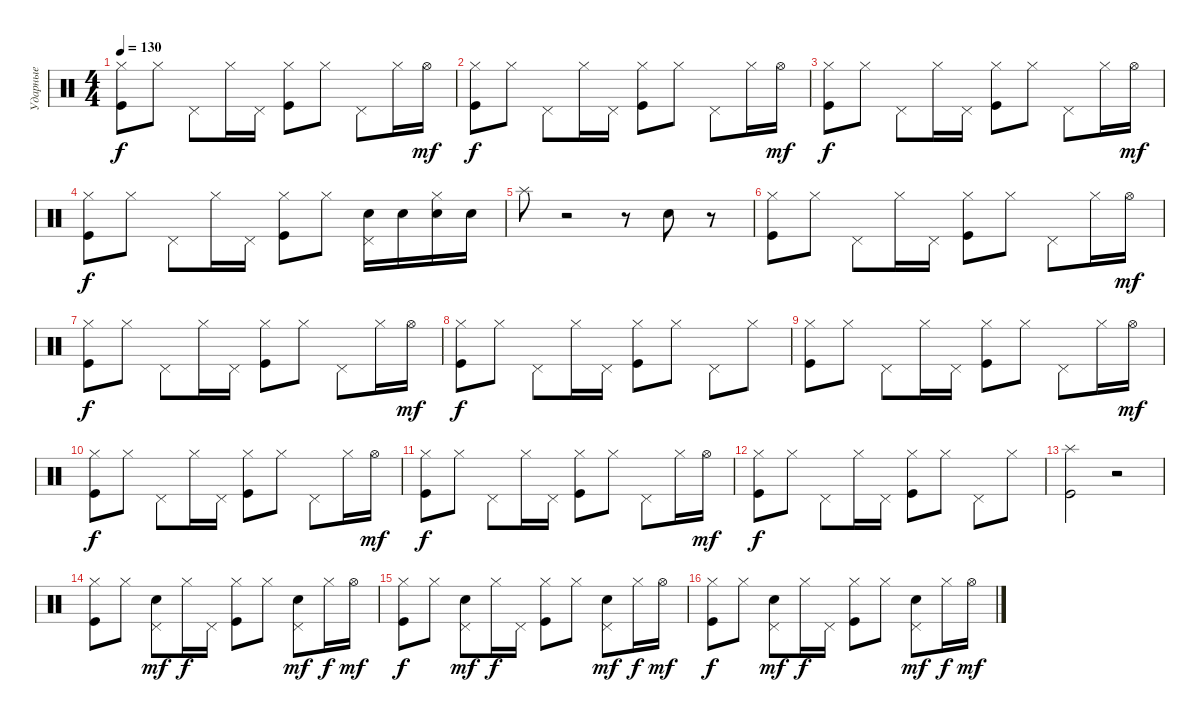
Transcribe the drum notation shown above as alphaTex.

\track ("Ударные" "Ударные") {instrument percussion}
\staff {score}
\articulation defaults
\ts (4 4)
\tempo 130
\clef neutral
\ks c
("Hi-Hat (closed)" "Kick (hit)").8{dy f} "Hi-Hat (closed)".8 "Pedal Hi-Hat (hit)".8 "Hi-Hat (closed)".16 "Pedal Hi-Hat (hit)".16 ("Hi-Hat (closed)" "Kick (hit)").8 "Hi-Hat (closed)".8 "Pedal Hi-Hat (hit)".8 "Hi-Hat (closed)".16 "Hi-Hat (open)".16{dy mf} |
("Hi-Hat (closed)" "Kick (hit)").8{dy f} "Hi-Hat (closed)".8 "Pedal Hi-Hat (hit)".8 "Hi-Hat (closed)".16 "Pedal Hi-Hat (hit)".16 ("Hi-Hat (closed)" "Kick (hit)").8 "Hi-Hat (closed)".8 "Pedal Hi-Hat (hit)".8 "Hi-Hat (closed)".16 "Hi-Hat (open)".16{dy mf} |
("Hi-Hat (closed)" "Kick (hit)").8{dy f} "Hi-Hat (closed)".8 "Pedal Hi-Hat (hit)".8 "Hi-Hat (closed)".16 "Pedal Hi-Hat (hit)".16 ("Hi-Hat (closed)" "Kick (hit)").8 "Hi-Hat (closed)".8 "Pedal Hi-Hat (hit)".8 "Hi-Hat (closed)".16 "Hi-Hat (open)".16{dy mf} |
("Hi-Hat (closed)" "Kick (hit)").8{dy f} "Hi-Hat (closed)".8 "Pedal Hi-Hat (hit)".8 "Hi-Hat (closed)".16 "Pedal Hi-Hat (hit)".16 ("Hi-Hat (closed)" "Kick (hit)").8 "Hi-Hat (closed)".8 ("Pedal Hi-Hat (hit)" "Electric Snare (hit)").16 "Electric Snare (hit)".16 ("Hi-Hat (closed)" "Electric Snare (hit)").16 "Electric Snare (hit)".16 |
"Splash (hit)".8 r.2 r.8 "Metronome (bell)".8 r.8 |
("Hi-Hat (closed)" "Kick (hit)").8 "Hi-Hat (closed)".8 "Pedal Hi-Hat (hit)".8 "Hi-Hat (closed)".16 "Pedal Hi-Hat (hit)".16 ("Hi-Hat (closed)" "Kick (hit)").8 "Hi-Hat (closed)".8 "Pedal Hi-Hat (hit)".8 "Hi-Hat (closed)".16 "Hi-Hat (open)".16{dy mf} |
("Hi-Hat (closed)" "Kick (hit)").8{dy f} "Hi-Hat (closed)".8 "Pedal Hi-Hat (hit)".8 "Hi-Hat (closed)".16 "Pedal Hi-Hat (hit)".16 ("Hi-Hat (closed)" "Kick (hit)").8 "Hi-Hat (closed)".8 "Pedal Hi-Hat (hit)".8 "Hi-Hat (closed)".16 "Hi-Hat (open)".16{dy mf} |
("Hi-Hat (closed)" "Kick (hit)").8{dy f} "Hi-Hat (closed)".8 "Pedal Hi-Hat (hit)".8 "Hi-Hat (closed)".16 "Pedal Hi-Hat (hit)".16 ("Hi-Hat (closed)" "Kick (hit)").8 "Hi-Hat (closed)".8 "Pedal Hi-Hat (hit)".8 "Hi-Hat (closed)".8 |
("Hi-Hat (closed)" "Kick (hit)").8 "Hi-Hat (closed)".8 "Pedal Hi-Hat (hit)".8 "Hi-Hat (closed)".16 "Pedal Hi-Hat (hit)".16 ("Hi-Hat (closed)" "Kick (hit)").8 "Hi-Hat (closed)".8 "Pedal Hi-Hat (hit)".8 "Hi-Hat (closed)".16 "Hi-Hat (open)".16{dy mf} |
("Hi-Hat (closed)" "Kick (hit)").8{dy f} "Hi-Hat (closed)".8 "Pedal Hi-Hat (hit)".8 "Hi-Hat (closed)".16 "Pedal Hi-Hat (hit)".16 ("Hi-Hat (closed)" "Kick (hit)").8 "Hi-Hat (closed)".8 "Pedal Hi-Hat (hit)".8 "Hi-Hat (closed)".16 "Hi-Hat (open)".16{dy mf} |
("Hi-Hat (closed)" "Kick (hit)").8{dy f} "Hi-Hat (closed)".8 "Pedal Hi-Hat (hit)".8 "Hi-Hat (closed)".16 "Pedal Hi-Hat (hit)".16 ("Hi-Hat (closed)" "Kick (hit)").8 "Hi-Hat (closed)".8 "Pedal Hi-Hat (hit)".8 "Hi-Hat (closed)".16 "Hi-Hat (open)".16{dy mf} |
("Hi-Hat (closed)" "Kick (hit)").8{dy f} "Hi-Hat (closed)".8 "Pedal Hi-Hat (hit)".8 "Hi-Hat (closed)".16 "Pedal Hi-Hat (hit)".16 ("Hi-Hat (closed)" "Kick (hit)").8 "Hi-Hat (closed)".8 "Pedal Hi-Hat (hit)".8 "Hi-Hat (closed)".8 |
("Splash (hit)" "Kick (hit)").2 r.2 |
("Hi-Hat (closed)" "Kick (hit)").8 "Hi-Hat (closed)".8 ("Pedal Hi-Hat (hit)" "Metronome (bell)").8{dy mf} "Hi-Hat (closed)".16{dy f} "Pedal Hi-Hat (hit)".16 ("Hi-Hat (closed)" "Kick (hit)").8 "Hi-Hat (closed)".8 ("Pedal Hi-Hat (hit)" "Metronome (bell)").8{dy mf} "Hi-Hat (closed)".16{dy f} "Hi-Hat (open)".16{dy mf} |
("Hi-Hat (closed)" "Kick (hit)").8{dy f} "Hi-Hat (closed)".8 ("Pedal Hi-Hat (hit)" "Metronome (bell)").8{dy mf} "Hi-Hat (closed)".16{dy f} "Pedal Hi-Hat (hit)".16 ("Hi-Hat (closed)" "Kick (hit)").8 "Hi-Hat (closed)".8 ("Pedal Hi-Hat (hit)" "Metronome (bell)").8{dy mf} "Hi-Hat (closed)".16{dy f} "Hi-Hat (open)".16{dy mf} |
("Hi-Hat (closed)" "Kick (hit)").8{dy f} "Hi-Hat (closed)".8 ("Pedal Hi-Hat (hit)" "Metronome (bell)").8{dy mf} "Hi-Hat (closed)".16{dy f} "Pedal Hi-Hat (hit)".16 ("Hi-Hat (closed)" "Kick (hit)").8 "Hi-Hat (closed)".8 ("Pedal Hi-Hat (hit)" "Metronome (bell)").8{dy mf} "Hi-Hat (closed)".16{dy f} "Hi-Hat (open)".16{dy mf}
